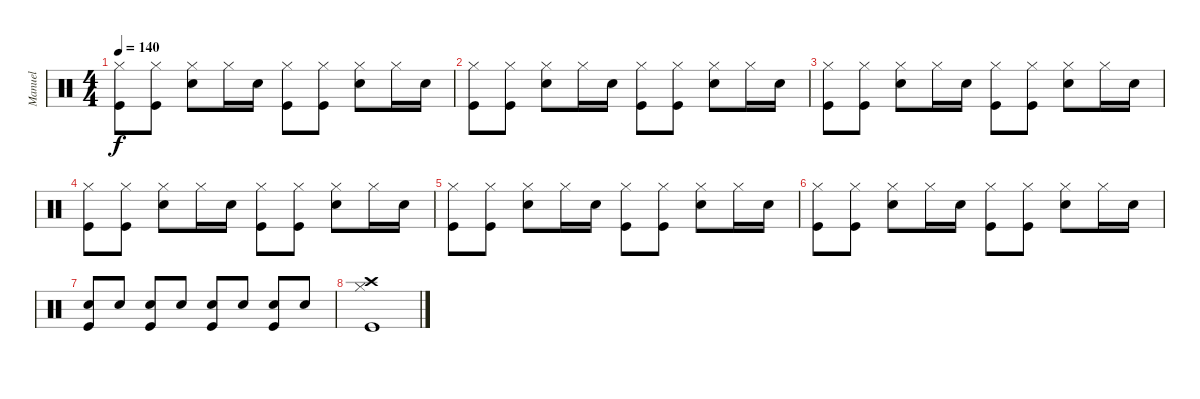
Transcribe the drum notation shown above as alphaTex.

\track ("Manuel" "Manuel") {instrument percussion}
\staff {score}
\articulation defaults
\ts (4 4)
\tempo 140
\clef neutral
\ks c
("Hi-Hat (closed)" "Kick (hit)").8{dy f} ("Hi-Hat (closed)" "Kick (hit)").8 ("Hi-Hat (closed)" "Snare (hit) 2").8 "Hi-Hat (closed)".16 "Snare (hit) 2".16 ("Hi-Hat (closed)" "Kick (hit)").8 ("Hi-Hat (closed)" "Kick (hit)").8 ("Hi-Hat (closed)" "Snare (hit) 2").8 "Hi-Hat (closed)".16 "Snare (hit) 2".16 |
("Hi-Hat (closed)" "Kick (hit)").8 ("Hi-Hat (closed)" "Kick (hit)").8 ("Hi-Hat (closed)" "Snare (hit) 2").8 "Hi-Hat (closed)".16 "Snare (hit) 2".16 ("Hi-Hat (closed)" "Kick (hit)").8 ("Hi-Hat (closed)" "Kick (hit)").8 ("Hi-Hat (closed)" "Snare (hit) 2").8 "Hi-Hat (closed)".16 "Snare (hit) 2".16 |
("Hi-Hat (closed)" "Kick (hit)").8 ("Hi-Hat (closed)" "Kick (hit)").8 ("Hi-Hat (closed)" "Snare (hit) 2").8 "Hi-Hat (closed)".16 "Snare (hit) 2".16 ("Hi-Hat (closed)" "Kick (hit)").8 ("Hi-Hat (closed)" "Kick (hit)").8 ("Hi-Hat (closed)" "Snare (hit) 2").8 "Hi-Hat (closed)".16 "Snare (hit) 2".16 |
("Hi-Hat (closed)" "Kick (hit)").8 ("Hi-Hat (closed)" "Kick (hit)").8 ("Hi-Hat (closed)" "Snare (hit) 2").8 "Hi-Hat (closed)".16 "Snare (hit) 2".16 ("Hi-Hat (closed)" "Kick (hit)").8 ("Hi-Hat (closed)" "Kick (hit)").8 ("Hi-Hat (closed)" "Snare (hit) 2").8 "Hi-Hat (closed)".16 "Snare (hit) 2".16 |
("Hi-Hat (closed)" "Kick (hit)").8 ("Hi-Hat (closed)" "Kick (hit)").8 ("Hi-Hat (closed)" "Snare (hit) 2").8 "Hi-Hat (closed)".16 "Snare (hit) 2".16 ("Hi-Hat (closed)" "Kick (hit)").8 ("Hi-Hat (closed)" "Kick (hit)").8 ("Hi-Hat (closed)" "Snare (hit) 2").8 "Hi-Hat (closed)".16 "Snare (hit) 2".16 |
("Hi-Hat (closed)" "Kick (hit)").8 ("Hi-Hat (closed)" "Kick (hit)").8 ("Hi-Hat (closed)" "Snare (hit) 2").8 "Hi-Hat (closed)".16 "Snare (hit) 2".16 ("Hi-Hat (closed)" "Kick (hit)").8 ("Hi-Hat (closed)" "Kick (hit)").8 ("Hi-Hat (closed)" "Snare (hit) 2").8 "Hi-Hat (closed)".16 "Snare (hit) 2".16 |
("Kick (hit)" "Electric Snare (hit)").8 "Electric Snare (hit)".8 ("Kick (hit)" "Electric Snare (hit)").8 "Electric Snare (hit)".8 ("Kick (hit)" "Electric Snare (hit)").8 "Electric Snare (hit)".8 ("Kick (hit)" "Electric Snare (hit)").8 "Electric Snare (hit)".8 |
("Crash high (hit)" "Kick (hit)" "Hi-Hat (closed)").1
